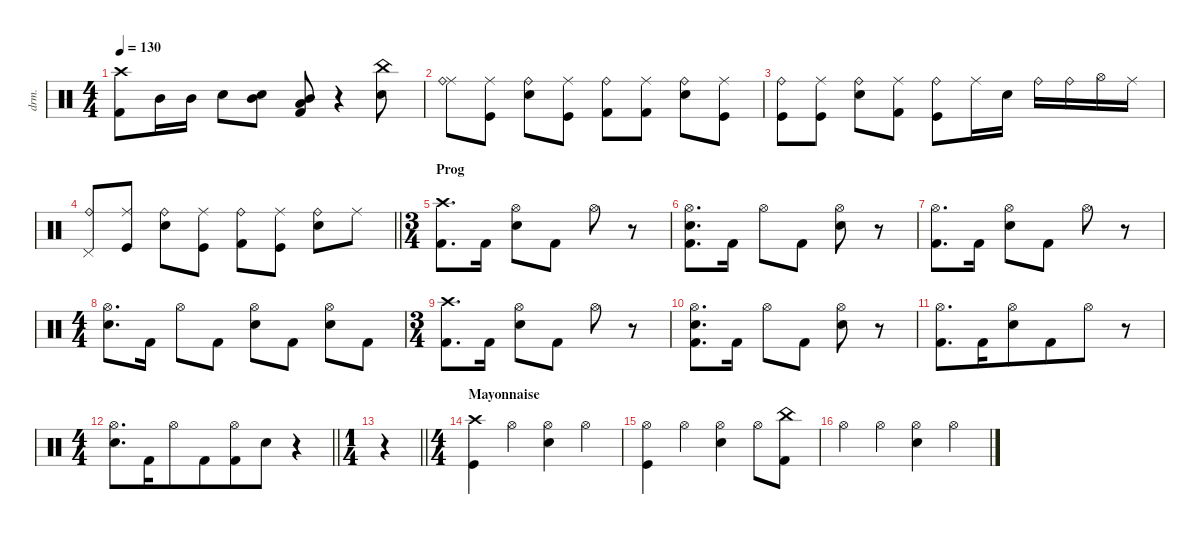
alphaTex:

\defaultSystemsLayout 4
\hideDynamics
\bracketExtendMode nobrackets
\track ("Manouche" "drm.") {instrument percussion}
\staff {score}
\articulation defaults
\voice
\ts (4 4)
\tempo 130
\clef neutral
\ks c
("Crash high (hit)" "Kick (hit) 2").8{dy f} "Mid Tom (hit)".16 "Mid Tom (hit)".16 "Snare (hit) 2".8{dy ff} ("Mid Tom (hit)" "Snare (hit) 2").8{dy mf} ("Kick (hit) 2" "Mid Tom (hit)" "Low Floor Tom (hit)").8{dy ff} r.4 ("China (hit)" "Snare (hit) 2").8 |
("Ride (middle)" "Ride (bell)").8{dy f} ("Ride (middle)" "Kick (hit)").8{dy mp} ("Snare (hit) 2" "Ride (bell)").8{dy f} ("Kick (hit)" "Ride (middle)").8 ("Ride (bell)" "Kick (hit) 2").8 ("Ride (middle)" "Kick (hit) 2").8{dy mp} ("Ride (bell)" "Snare (hit) 2").8{dy f} ("Ride (middle)" "Kick (hit)").8{dy mp} |
("Kick (hit)" "Ride (bell)").8{dy f} ("Kick (hit)" "Ride (middle)").8 ("Ride (bell)" "Snare (hit) 2").8 ("Ride (middle)" "Kick (hit) 2").8{dy mp} ("Ride (bell)" "Kick (hit)").8{dy f} "Ride (middle)".16{dy mp} "Snare (hit) 2".16{dy f} "Ride (bell)".16 "Ride (bell)".16 "Hi-Hat (open)".16 "Ride (middle)".16 |
\barLineRight lightlight
("Ride (bell)" "Pedal Hi-Hat (hit)").8 ("Kick (hit)" "Ride (middle)").8 ("Snare (hit) 2" "Ride (bell)").8 ("Ride (middle)" "Kick (hit)").8{dy mp} ("Ride (bell)" "Kick (hit) 2").8{dy f} ("Ride (middle)" "Kick (hit)").8{dy mp} ("Snare (hit) 2" "Ride (bell)").8{dy f} "Ride (middle)".8{dy mp} |
\ts (3 4)
\beaming (8 2 2 2)
\section ("" "Prog")
("Crash high (hit)" "Kick (hit) 2").8{d dy f} "Kick (hit) 2".16 ("Hi-Hat (open)" "Snare (hit) 2").8 "Kick (hit) 2".8 "Hi-Hat (open)".8 r.8 |
("Hi-Hat (open)" "Snare (hit) 2" "Kick (hit) 2").8{d} "Kick (hit) 2".16 "Hi-Hat (open)".8 "Kick (hit) 2".8 ("Hi-Hat (open)" "Snare (hit) 2").8 r.8 |
("Hi-Hat (open)" "Kick (hit) 2").8{d} "Kick (hit) 2".16 ("Hi-Hat (open)" "Snare (hit) 2").8 "Kick (hit) 2".8 "Hi-Hat (open)".8 r.8 |
\ts (4 4)
\beaming (8 2 2 2 2)
("Hi-Hat (open)" "Snare (hit) 2").8{d} "Kick (hit) 2".16 "Hi-Hat (open)".8 "Kick (hit) 2".8 ("Hi-Hat (open)" "Snare (hit) 2").8 "Kick (hit) 2".8 ("Hi-Hat (open)" "Snare (hit) 2").8 "Kick (hit) 2".8 |
\ts (3 4)
\beaming (8 2 2 2)
("Crash high (hit)" "Kick (hit) 2").8{d} "Kick (hit) 2".16 ("Hi-Hat (open)" "Snare (hit) 2").8 "Kick (hit) 2".8 "Hi-Hat (open)".8 r.8 |
("Hi-Hat (open)" "Snare (hit) 2" "Kick (hit) 2").8{d} "Kick (hit) 2".16 "Hi-Hat (open)".8 "Kick (hit) 2".8 ("Hi-Hat (open)" "Snare (hit) 2").8 r.8 |
\beaming (8 6 4)
("Hi-Hat (open)" "Kick (hit) 2").8{d} "Kick (hit) 2".16 ("Hi-Hat (open)" "Snare (hit) 2").8 "Kick (hit) 2".8 "Hi-Hat (open)".8 r.8 |
\ts (4 4)
\beaming (8 6 4)
\barLineRight lightlight
("Hi-Hat (open)" "Snare (hit) 2").8{d} "Kick (hit) 2".16 "Hi-Hat (open)".8 "Kick (hit) 2".8 ("Hi-Hat (open)" "Kick (hit) 2").8 "Snare (hit) 2".8 r.4 |
\ts (1 4)
\beaming (8 2)
\barLineRight lightlight
r.4 |
\ts (4 4)
\beaming (8 2 2 2 2)
\section ("" "Mayonnaise")
("Crash high (hit)" "Kick (hit)").4 "Hi-Hat (open)".4 ("Hi-Hat (open)" "Snare (hit) 2").4 "Hi-Hat (open)".4 |
("Hi-Hat (open)" "Kick (hit)").4 "Hi-Hat (open)".4 ("Hi-Hat (open)" "Snare (hit) 2").4 "Hi-Hat (open)".8 ("China (hit)" "Kick (hit) 2").8 |
"Hi-Hat (open)".4 "Hi-Hat (open)".4 ("Hi-Hat (open)" "Snare (hit) 2").4 "Hi-Hat (open)".4
\voice
\clef neutral
\ottava regular
\simile none
\ks c
|
|
|
\barLineRight lightlight
|
|
|
|
|
|
|
|
\barLineRight lightlight
|
\barLineRight lightlight
r.4{dy mf} |
|
|
